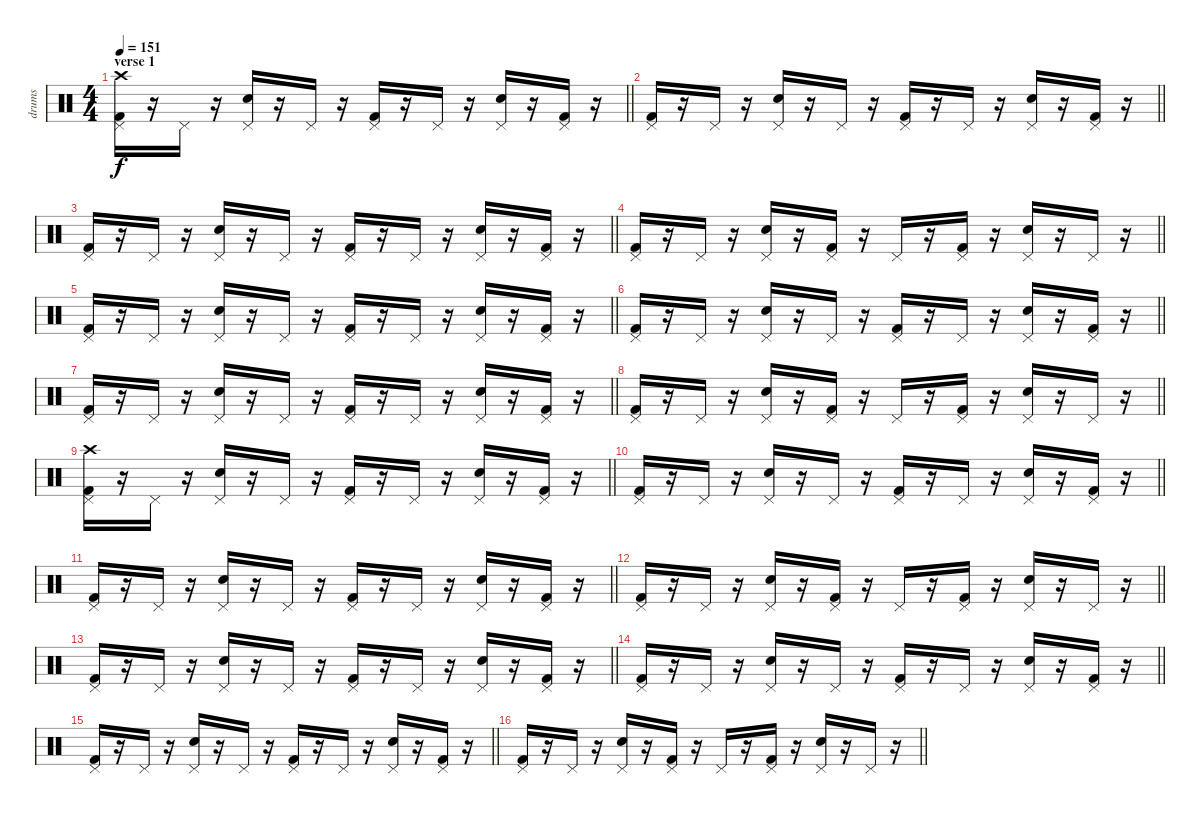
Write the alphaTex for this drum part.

\track ("drums" "drums") {instrument percussion}
\staff {score}
\articulation defaults
\ts (4 4)
\section ("" "verse 1")
\tempo 151
\clef neutral
\barLineRight lightlight
\ks c
("Kick (hit) 2" "Pedal Hi-Hat (hit)" "Crash high (hit)").16{dy f} r.16 "Pedal Hi-Hat (hit)".16 r.16 ("Electric Snare (hit)" "Pedal Hi-Hat (hit)").16 r.16 "Pedal Hi-Hat (hit)".16 r.16 ("Kick (hit) 2" "Pedal Hi-Hat (hit)").16 r.16 "Pedal Hi-Hat (hit)".16 r.16 ("Electric Snare (hit)" "Pedal Hi-Hat (hit)").16 r.16 ("Kick (hit) 2" "Pedal Hi-Hat (hit)").16 r.16 |
\barLineRight lightlight
("Kick (hit) 2" "Pedal Hi-Hat (hit)").16 r.16 "Pedal Hi-Hat (hit)".16 r.16 ("Electric Snare (hit)" "Pedal Hi-Hat (hit)").16 r.16 "Pedal Hi-Hat (hit)".16 r.16 ("Kick (hit) 2" "Pedal Hi-Hat (hit)").16 r.16 "Pedal Hi-Hat (hit)".16 r.16 ("Electric Snare (hit)" "Pedal Hi-Hat (hit)").16 r.16 ("Kick (hit) 2" "Pedal Hi-Hat (hit)").16 r.16 |
\barLineRight lightlight
("Kick (hit) 2" "Pedal Hi-Hat (hit)").16 r.16 "Pedal Hi-Hat (hit)".16 r.16 ("Electric Snare (hit)" "Pedal Hi-Hat (hit)").16 r.16 "Pedal Hi-Hat (hit)".16 r.16 ("Kick (hit) 2" "Pedal Hi-Hat (hit)").16 r.16 "Pedal Hi-Hat (hit)".16 r.16 ("Electric Snare (hit)" "Pedal Hi-Hat (hit)").16 r.16 ("Kick (hit) 2" "Pedal Hi-Hat (hit)").16 r.16 |
\barLineRight lightlight
("Kick (hit) 2" "Pedal Hi-Hat (hit)").16 r.16 "Pedal Hi-Hat (hit)".16 r.16 ("Electric Snare (hit)" "Pedal Hi-Hat (hit)").16 r.16 ("Kick (hit) 2" "Pedal Hi-Hat (hit)").16 r.16 "Pedal Hi-Hat (hit)".16 r.16 ("Kick (hit) 2" "Pedal Hi-Hat (hit)").16 r.16 ("Electric Snare (hit)" "Pedal Hi-Hat (hit)").16 r.16 "Pedal Hi-Hat (hit)".16 r.16 |
\barLineRight lightlight
("Kick (hit) 2" "Pedal Hi-Hat (hit)").16 r.16 "Pedal Hi-Hat (hit)".16 r.16 ("Electric Snare (hit)" "Pedal Hi-Hat (hit)").16 r.16 "Pedal Hi-Hat (hit)".16 r.16 ("Kick (hit) 2" "Pedal Hi-Hat (hit)").16 r.16 "Pedal Hi-Hat (hit)".16 r.16 ("Electric Snare (hit)" "Pedal Hi-Hat (hit)").16 r.16 ("Kick (hit) 2" "Pedal Hi-Hat (hit)").16 r.16 |
\barLineRight lightlight
("Kick (hit) 2" "Pedal Hi-Hat (hit)").16 r.16 "Pedal Hi-Hat (hit)".16 r.16 ("Electric Snare (hit)" "Pedal Hi-Hat (hit)").16 r.16 "Pedal Hi-Hat (hit)".16 r.16 ("Kick (hit) 2" "Pedal Hi-Hat (hit)").16 r.16 "Pedal Hi-Hat (hit)".16 r.16 ("Electric Snare (hit)" "Pedal Hi-Hat (hit)").16 r.16 ("Kick (hit) 2" "Pedal Hi-Hat (hit)").16 r.16 |
\barLineRight lightlight
("Kick (hit) 2" "Pedal Hi-Hat (hit)").16 r.16 "Pedal Hi-Hat (hit)".16 r.16 ("Electric Snare (hit)" "Pedal Hi-Hat (hit)").16 r.16 "Pedal Hi-Hat (hit)".16 r.16 ("Kick (hit) 2" "Pedal Hi-Hat (hit)").16 r.16 "Pedal Hi-Hat (hit)".16 r.16 ("Electric Snare (hit)" "Pedal Hi-Hat (hit)").16 r.16 ("Kick (hit) 2" "Pedal Hi-Hat (hit)").16 r.16 |
\barLineRight lightlight
("Kick (hit) 2" "Pedal Hi-Hat (hit)").16 r.16 "Pedal Hi-Hat (hit)".16 r.16 ("Electric Snare (hit)" "Pedal Hi-Hat (hit)").16 r.16 ("Kick (hit) 2" "Pedal Hi-Hat (hit)").16 r.16 "Pedal Hi-Hat (hit)".16 r.16 ("Kick (hit) 2" "Pedal Hi-Hat (hit)").16 r.16 ("Electric Snare (hit)" "Pedal Hi-Hat (hit)").16 r.16 "Pedal Hi-Hat (hit)".16 r.16 |
\barLineRight lightlight
("Kick (hit) 2" "Pedal Hi-Hat (hit)" "Crash high (hit)").16 r.16 "Pedal Hi-Hat (hit)".16 r.16 ("Electric Snare (hit)" "Pedal Hi-Hat (hit)").16 r.16 "Pedal Hi-Hat (hit)".16 r.16 ("Kick (hit) 2" "Pedal Hi-Hat (hit)").16 r.16 "Pedal Hi-Hat (hit)".16 r.16 ("Electric Snare (hit)" "Pedal Hi-Hat (hit)").16 r.16 ("Kick (hit) 2" "Pedal Hi-Hat (hit)").16 r.16 |
\barLineRight lightlight
("Kick (hit) 2" "Pedal Hi-Hat (hit)").16 r.16 "Pedal Hi-Hat (hit)".16 r.16 ("Electric Snare (hit)" "Pedal Hi-Hat (hit)").16 r.16 "Pedal Hi-Hat (hit)".16 r.16 ("Kick (hit) 2" "Pedal Hi-Hat (hit)").16 r.16 "Pedal Hi-Hat (hit)".16 r.16 ("Electric Snare (hit)" "Pedal Hi-Hat (hit)").16 r.16 ("Kick (hit) 2" "Pedal Hi-Hat (hit)").16 r.16 |
\barLineRight lightlight
("Kick (hit) 2" "Pedal Hi-Hat (hit)").16 r.16 "Pedal Hi-Hat (hit)".16 r.16 ("Electric Snare (hit)" "Pedal Hi-Hat (hit)").16 r.16 "Pedal Hi-Hat (hit)".16 r.16 ("Kick (hit) 2" "Pedal Hi-Hat (hit)").16 r.16 "Pedal Hi-Hat (hit)".16 r.16 ("Electric Snare (hit)" "Pedal Hi-Hat (hit)").16 r.16 ("Kick (hit) 2" "Pedal Hi-Hat (hit)").16 r.16 |
\barLineRight lightlight
("Kick (hit) 2" "Pedal Hi-Hat (hit)").16 r.16 "Pedal Hi-Hat (hit)".16 r.16 ("Electric Snare (hit)" "Pedal Hi-Hat (hit)").16 r.16 ("Kick (hit) 2" "Pedal Hi-Hat (hit)").16 r.16 "Pedal Hi-Hat (hit)".16 r.16 ("Kick (hit) 2" "Pedal Hi-Hat (hit)").16 r.16 ("Electric Snare (hit)" "Pedal Hi-Hat (hit)").16 r.16 "Pedal Hi-Hat (hit)".16 r.16 |
\barLineRight lightlight
("Kick (hit) 2" "Pedal Hi-Hat (hit)").16 r.16 "Pedal Hi-Hat (hit)".16 r.16 ("Electric Snare (hit)" "Pedal Hi-Hat (hit)").16 r.16 "Pedal Hi-Hat (hit)".16 r.16 ("Kick (hit) 2" "Pedal Hi-Hat (hit)").16 r.16 "Pedal Hi-Hat (hit)".16 r.16 ("Electric Snare (hit)" "Pedal Hi-Hat (hit)").16 r.16 ("Kick (hit) 2" "Pedal Hi-Hat (hit)").16 r.16 |
\barLineRight lightlight
("Kick (hit) 2" "Pedal Hi-Hat (hit)").16 r.16 "Pedal Hi-Hat (hit)".16 r.16 ("Electric Snare (hit)" "Pedal Hi-Hat (hit)").16 r.16 "Pedal Hi-Hat (hit)".16 r.16 ("Kick (hit) 2" "Pedal Hi-Hat (hit)").16 r.16 "Pedal Hi-Hat (hit)".16 r.16 ("Electric Snare (hit)" "Pedal Hi-Hat (hit)").16 r.16 ("Kick (hit) 2" "Pedal Hi-Hat (hit)").16 r.16 |
\barLineRight lightlight
("Kick (hit) 2" "Pedal Hi-Hat (hit)").16 r.16 "Pedal Hi-Hat (hit)".16 r.16 ("Electric Snare (hit)" "Pedal Hi-Hat (hit)").16 r.16 "Pedal Hi-Hat (hit)".16 r.16 ("Kick (hit) 2" "Pedal Hi-Hat (hit)").16 r.16 "Pedal Hi-Hat (hit)".16 r.16 ("Electric Snare (hit)" "Pedal Hi-Hat (hit)").16 r.16 ("Kick (hit) 2" "Pedal Hi-Hat (hit)").16 r.16 |
\barLineRight lightlight
("Kick (hit) 2" "Pedal Hi-Hat (hit)").16 r.16 "Pedal Hi-Hat (hit)".16 r.16 ("Electric Snare (hit)" "Pedal Hi-Hat (hit)").16 r.16 ("Kick (hit) 2" "Pedal Hi-Hat (hit)").16 r.16 "Pedal Hi-Hat (hit)".16 r.16 ("Kick (hit) 2" "Pedal Hi-Hat (hit)").16 r.16 ("Electric Snare (hit)" "Pedal Hi-Hat (hit)").16 r.16 "Pedal Hi-Hat (hit)".16 r.16
